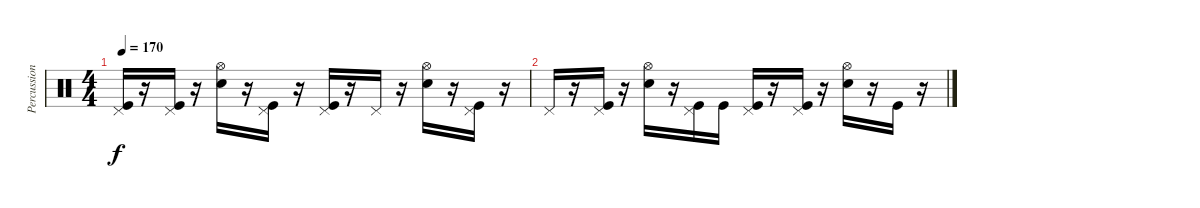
\track ("Percussion" "Percussion") {instrument percussion}
\staff {score}
\articulation defaults
\ts (4 4)
\tempo 170
\clef neutral
\ks c
("Pedal Hi-Hat (hit)" "Kick (hit)").16{dy f volume 3} r.16 ("Pedal Hi-Hat (hit)" "Kick (hit)").16{volume 2} r.16 ("Hi-Hat (open)" "Electric Snare (hit)").16{volume 2} r.16 ("Pedal Hi-Hat (hit)" "Kick (hit)").16{volume 1} r.16 ("Pedal Hi-Hat (hit)" "Kick (hit)").16{volume 0} r.16 "Pedal Hi-Hat (hit)".16{volume 0} r.16 ("Hi-Hat (open)" "Electric Snare (hit)").16 r.16 ("Pedal Hi-Hat (hit)" "Kick (hit)").16 r.16 |
"Pedal Hi-Hat (hit)".16 r.16 ("Pedal Hi-Hat (hit)" "Kick (hit)").16 r.16 ("Hi-Hat (open)" "Electric Snare (hit)").16 r.16 ("Pedal Hi-Hat (hit)" "Kick (hit)").16 "Kick (hit)".16 ("Pedal Hi-Hat (hit)" "Kick (hit)").16 r.16 ("Pedal Hi-Hat (hit)" "Kick (hit)").16 r.16 ("Hi-Hat (open)" "Electric Snare (hit)").16 r.16 "Kick (hit)".16 r.16
